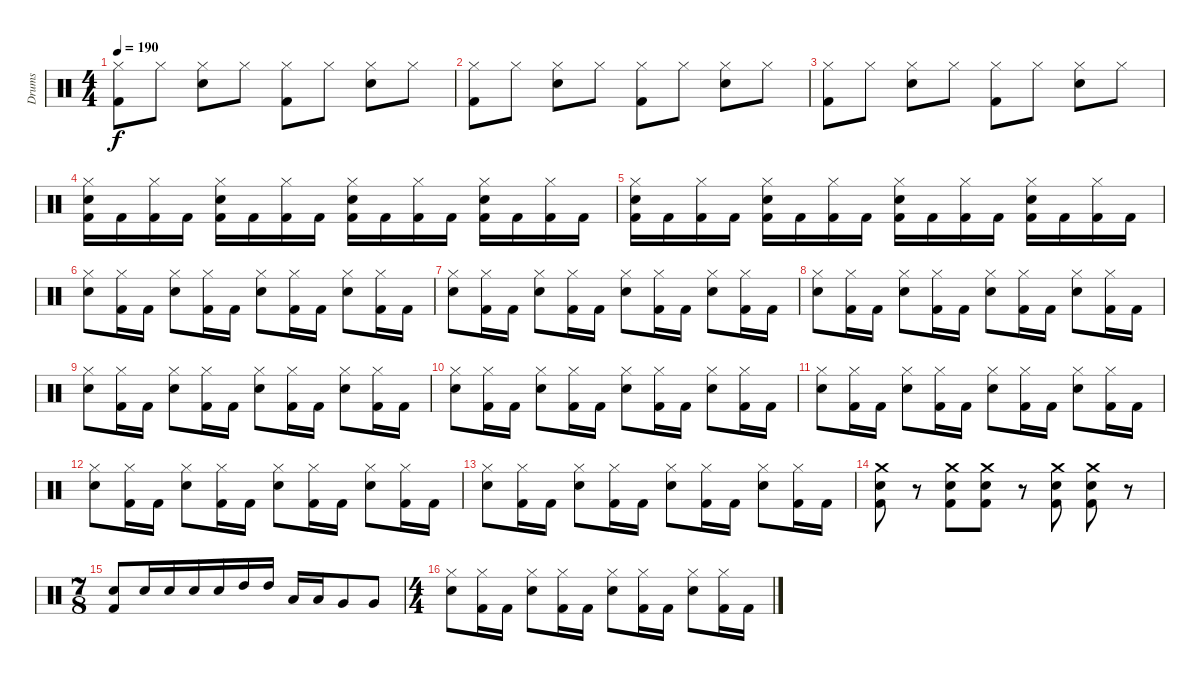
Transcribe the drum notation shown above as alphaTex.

\track ("Drums" "Drums") {instrument percussion}
\staff {score}
\articulation defaults
\ts (4 4)
\tempo 190
\clef neutral
\ks c
("Kick (hit) 2" "Hi-Hat (closed)").8{dy f} "Hi-Hat (closed)".8 ("Snare (hit) 2" "Hi-Hat (closed)").8 "Hi-Hat (closed)".8 ("Kick (hit) 2" "Hi-Hat (closed)").8 "Hi-Hat (closed)".8 ("Snare (hit) 2" "Hi-Hat (closed)").8 "Hi-Hat (closed)".8 |
("Kick (hit) 2" "Hi-Hat (closed)").8 "Hi-Hat (closed)".8 ("Snare (hit) 2" "Hi-Hat (closed)").8 "Hi-Hat (closed)".8 ("Kick (hit) 2" "Hi-Hat (closed)").8 "Hi-Hat (closed)".8 ("Snare (hit) 2" "Hi-Hat (closed)").8 "Hi-Hat (closed)".8 |
("Kick (hit) 2" "Hi-Hat (closed)").8 "Hi-Hat (closed)".8 ("Snare (hit) 2" "Hi-Hat (closed)").8 "Hi-Hat (closed)".8 ("Kick (hit) 2" "Hi-Hat (closed)").8 "Hi-Hat (closed)".8 ("Snare (hit) 2" "Hi-Hat (closed)").8 "Hi-Hat (closed)".8 |
("Kick (hit) 2" "Snare (hit) 2" "Hi-Hat (closed)").16 "Kick (hit) 2".16 ("Kick (hit) 2" "Hi-Hat (closed)").16 "Kick (hit) 2".16 ("Kick (hit) 2" "Snare (hit) 2" "Hi-Hat (closed)").16 "Kick (hit) 2".16 ("Kick (hit) 2" "Hi-Hat (closed)").16 "Kick (hit) 2".16 ("Kick (hit) 2" "Snare (hit) 2" "Hi-Hat (closed)").16 "Kick (hit) 2".16 ("Kick (hit) 2" "Hi-Hat (closed)").16 "Kick (hit) 2".16 ("Kick (hit) 2" "Snare (hit) 2" "Hi-Hat (closed)").16 "Kick (hit) 2".16 ("Kick (hit) 2" "Hi-Hat (closed)").16 "Kick (hit) 2".16 |
("Kick (hit) 2" "Snare (hit) 2" "Hi-Hat (closed)").16 "Kick (hit) 2".16 ("Kick (hit) 2" "Hi-Hat (closed)").16 "Kick (hit) 2".16 ("Kick (hit) 2" "Snare (hit) 2" "Hi-Hat (closed)").16 "Kick (hit) 2".16 ("Kick (hit) 2" "Hi-Hat (closed)").16 "Kick (hit) 2".16 ("Kick (hit) 2" "Snare (hit) 2" "Hi-Hat (closed)").16 "Kick (hit) 2".16 ("Kick (hit) 2" "Hi-Hat (closed)").16 "Kick (hit) 2".16 ("Kick (hit) 2" "Snare (hit) 2" "Hi-Hat (closed)").16 "Kick (hit) 2".16 ("Kick (hit) 2" "Hi-Hat (closed)").16 "Kick (hit) 2".16 |
("Snare (hit) 2" "Hi-Hat (closed)").8 ("Kick (hit) 2" "Hi-Hat (closed)").16 "Kick (hit) 2".16 ("Snare (hit) 2" "Hi-Hat (closed)").8 ("Kick (hit) 2" "Hi-Hat (closed)").16 "Kick (hit) 2".16 ("Snare (hit) 2" "Hi-Hat (closed)").8 ("Kick (hit) 2" "Hi-Hat (closed)").16 "Kick (hit) 2".16 ("Snare (hit) 2" "Hi-Hat (closed)").8 ("Kick (hit) 2" "Hi-Hat (closed)").16 "Kick (hit) 2".16 |
("Snare (hit) 2" "Hi-Hat (closed)").8 ("Kick (hit) 2" "Hi-Hat (closed)").16 "Kick (hit) 2".16 ("Snare (hit) 2" "Hi-Hat (closed)").8 ("Kick (hit) 2" "Hi-Hat (closed)").16 "Kick (hit) 2".16 ("Snare (hit) 2" "Hi-Hat (closed)").8 ("Kick (hit) 2" "Hi-Hat (closed)").16 "Kick (hit) 2".16 ("Snare (hit) 2" "Hi-Hat (closed)").8 ("Kick (hit) 2" "Hi-Hat (closed)").16 "Kick (hit) 2".16 |
("Snare (hit) 2" "Hi-Hat (closed)").8 ("Kick (hit) 2" "Hi-Hat (closed)").16 "Kick (hit) 2".16 ("Snare (hit) 2" "Hi-Hat (closed)").8 ("Kick (hit) 2" "Hi-Hat (closed)").16 "Kick (hit) 2".16 ("Snare (hit) 2" "Hi-Hat (closed)").8 ("Kick (hit) 2" "Hi-Hat (closed)").16 "Kick (hit) 2".16 ("Snare (hit) 2" "Hi-Hat (closed)").8 ("Kick (hit) 2" "Hi-Hat (closed)").16 "Kick (hit) 2".16 |
("Snare (hit) 2" "Hi-Hat (closed)").8 ("Kick (hit) 2" "Hi-Hat (closed)").16 "Kick (hit) 2".16 ("Snare (hit) 2" "Hi-Hat (closed)").8 ("Kick (hit) 2" "Hi-Hat (closed)").16 "Kick (hit) 2".16 ("Snare (hit) 2" "Hi-Hat (closed)").8 ("Kick (hit) 2" "Hi-Hat (closed)").16 "Kick (hit) 2".16 ("Snare (hit) 2" "Hi-Hat (closed)").8 ("Kick (hit) 2" "Hi-Hat (closed)").16 "Kick (hit) 2".16 |
("Snare (hit) 2" "Hi-Hat (closed)").8 ("Kick (hit) 2" "Hi-Hat (closed)").16 "Kick (hit) 2".16 ("Snare (hit) 2" "Hi-Hat (closed)").8 ("Kick (hit) 2" "Hi-Hat (closed)").16 "Kick (hit) 2".16 ("Snare (hit) 2" "Hi-Hat (closed)").8 ("Kick (hit) 2" "Hi-Hat (closed)").16 "Kick (hit) 2".16 ("Snare (hit) 2" "Hi-Hat (closed)").8 ("Kick (hit) 2" "Hi-Hat (closed)").16 "Kick (hit) 2".16 |
("Snare (hit) 2" "Hi-Hat (closed)").8 ("Kick (hit) 2" "Hi-Hat (closed)").16 "Kick (hit) 2".16 ("Snare (hit) 2" "Hi-Hat (closed)").8 ("Kick (hit) 2" "Hi-Hat (closed)").16 "Kick (hit) 2".16 ("Snare (hit) 2" "Hi-Hat (closed)").8 ("Kick (hit) 2" "Hi-Hat (closed)").16 "Kick (hit) 2".16 ("Snare (hit) 2" "Hi-Hat (closed)").8 ("Kick (hit) 2" "Hi-Hat (closed)").16 "Kick (hit) 2".16 |
("Snare (hit) 2" "Hi-Hat (closed)").8 ("Kick (hit) 2" "Hi-Hat (closed)").16 "Kick (hit) 2".16 ("Snare (hit) 2" "Hi-Hat (closed)").8 ("Kick (hit) 2" "Hi-Hat (closed)").16 "Kick (hit) 2".16 ("Snare (hit) 2" "Hi-Hat (closed)").8 ("Kick (hit) 2" "Hi-Hat (closed)").16 "Kick (hit) 2".16 ("Snare (hit) 2" "Hi-Hat (closed)").8 ("Kick (hit) 2" "Hi-Hat (closed)").16 "Kick (hit) 2".16 |
("Snare (hit) 2" "Hi-Hat (closed)").8 ("Kick (hit) 2" "Hi-Hat (closed)").16 "Kick (hit) 2".16 ("Snare (hit) 2" "Hi-Hat (closed)").8 ("Kick (hit) 2" "Hi-Hat (closed)").16 "Kick (hit) 2".16 ("Snare (hit) 2" "Hi-Hat (closed)").8 ("Kick (hit) 2" "Hi-Hat (closed)").16 "Kick (hit) 2".16 ("Snare (hit) 2" "Hi-Hat (closed)").8 ("Kick (hit) 2" "Hi-Hat (closed)").16 "Kick (hit) 2".16 |
("Crash medium (hit)" "Snare (hit) 2" "Kick (hit) 2").8 r.8 ("Crash medium (hit)" "Snare (hit) 2" "Kick (hit) 2").8 ("Crash medium (hit)" "Snare (hit) 2" "Kick (hit) 2").8 r.8 ("Crash medium (hit)" "Snare (hit) 2" "Kick (hit) 2").8 ("Crash medium (hit)" "Snare (hit) 2" "Kick (hit) 2").8 r.8 |
\ts (7 8)
("Snare (hit) 2" "Kick (hit) 2").8 "Snare (hit) 2".16 "Snare (hit) 2".16 "Snare (hit) 2".16 "Snare (hit) 2".16 "High Tom (hit)".16 "High Tom (hit)".16 "Low Tom (hit)".16 "Low Tom (hit)".16 "Very Low Tom (hit)".8 "Very Low Tom (hit)".8 |
\ts (4 4)
("Snare (hit) 2" "Hi-Hat (closed)").8 ("Kick (hit) 2" "Hi-Hat (closed)").16 "Kick (hit) 2".16 ("Snare (hit) 2" "Hi-Hat (closed)").8 ("Kick (hit) 2" "Hi-Hat (closed)").16 "Kick (hit) 2".16 ("Snare (hit) 2" "Hi-Hat (closed)").8 ("Kick (hit) 2" "Hi-Hat (closed)").16 "Kick (hit) 2".16 ("Snare (hit) 2" "Hi-Hat (closed)").8 ("Kick (hit) 2" "Hi-Hat (closed)").16 "Kick (hit) 2".16
